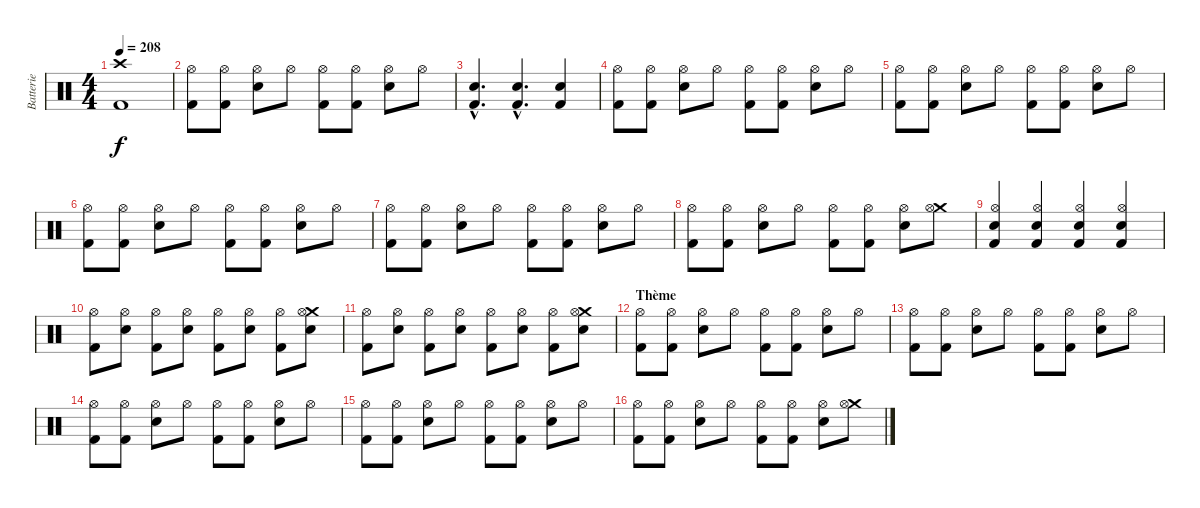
\track ("Batterie" "Batterie") {instrument percussion}
\staff {score}
\articulation defaults
\ts (4 4)
\tempo 208
\clef neutral
\ks c
("Crash high (hit)" "Kick (hit) 2").1{dy f} |
("Hi-Hat (open)" "Kick (hit) 2").8 ("Hi-Hat (open)" "Kick (hit) 2").8 ("Hi-Hat (open)" "Snare (hit) 2").8 "Hi-Hat (open)".8 ("Hi-Hat (open)" "Kick (hit) 2").8 ("Hi-Hat (open)" "Kick (hit) 2").8 ("Hi-Hat (open)" "Snare (hit) 2").8 "Hi-Hat (open)".8 |
("Snare (hit) 2"{hac} "Kick (hit) 2"{hac}).4{d} ("Snare (hit) 2"{hac} "Kick (hit) 2"{hac}).4{d} ("Snare (hit) 2" "Kick (hit) 2").4 |
("Hi-Hat (open)" "Kick (hit) 2").8 ("Hi-Hat (open)" "Kick (hit) 2").8 ("Hi-Hat (open)" "Snare (hit) 2").8 "Hi-Hat (open)".8 ("Hi-Hat (open)" "Kick (hit) 2").8 ("Hi-Hat (open)" "Kick (hit) 2").8 ("Hi-Hat (open)" "Snare (hit) 2").8 "Hi-Hat (open)".8 |
("Hi-Hat (open)" "Kick (hit) 2").8 ("Hi-Hat (open)" "Kick (hit) 2").8 ("Hi-Hat (open)" "Snare (hit) 2").8 "Hi-Hat (open)".8 ("Hi-Hat (open)" "Kick (hit) 2").8 ("Hi-Hat (open)" "Kick (hit) 2").8 ("Hi-Hat (open)" "Snare (hit) 2").8 "Hi-Hat (open)".8 |
("Hi-Hat (open)" "Kick (hit) 2").8 ("Hi-Hat (open)" "Kick (hit) 2").8 ("Hi-Hat (open)" "Snare (hit) 2").8 "Hi-Hat (open)".8 ("Hi-Hat (open)" "Kick (hit) 2").8 ("Hi-Hat (open)" "Kick (hit) 2").8 ("Hi-Hat (open)" "Snare (hit) 2").8 "Hi-Hat (open)".8 |
("Hi-Hat (open)" "Kick (hit) 2").8 ("Hi-Hat (open)" "Kick (hit) 2").8 ("Hi-Hat (open)" "Snare (hit) 2").8 "Hi-Hat (open)".8 ("Hi-Hat (open)" "Kick (hit) 2").8 ("Hi-Hat (open)" "Kick (hit) 2").8 ("Hi-Hat (open)" "Snare (hit) 2").8 "Hi-Hat (open)".8 |
("Hi-Hat (open)" "Kick (hit) 2").8 ("Hi-Hat (open)" "Kick (hit) 2").8 ("Hi-Hat (open)" "Snare (hit) 2").8 "Hi-Hat (open)".8 ("Hi-Hat (open)" "Kick (hit) 2").8 ("Hi-Hat (open)" "Kick (hit) 2").8 ("Hi-Hat (open)" "Snare (hit) 2").8 ("Crash medium (hit)" "Hi-Hat (open)").8 |
("Hi-Hat (open)" "Snare (hit) 2" "Kick (hit) 2").4 ("Hi-Hat (open)" "Snare (hit) 2" "Kick (hit) 2").4 ("Hi-Hat (open)" "Snare (hit) 2" "Kick (hit) 2").4 ("Hi-Hat (open)" "Snare (hit) 2" "Kick (hit) 2").4 |
("Hi-Hat (open)" "Kick (hit) 2").8 ("Hi-Hat (open)" "Snare (hit) 2").8 ("Hi-Hat (open)" "Kick (hit) 2").8 ("Hi-Hat (open)" "Snare (hit) 2").8 ("Hi-Hat (open)" "Kick (hit) 2").8 ("Hi-Hat (open)" "Snare (hit) 2").8 ("Hi-Hat (open)" "Kick (hit) 2").8 ("Crash medium (hit)" "Hi-Hat (open)" "Snare (hit) 2").8 |
("Hi-Hat (open)" "Kick (hit) 2").8 ("Hi-Hat (open)" "Snare (hit) 2").8 ("Hi-Hat (open)" "Kick (hit) 2").8 ("Hi-Hat (open)" "Snare (hit) 2").8 ("Hi-Hat (open)" "Kick (hit) 2").8 ("Hi-Hat (open)" "Snare (hit) 2").8 ("Hi-Hat (open)" "Kick (hit) 2").8 ("Crash medium (hit)" "Hi-Hat (open)" "Snare (hit) 2").8 |
\section ("" "Thème")
("Hi-Hat (open)" "Kick (hit) 2").8 ("Hi-Hat (open)" "Kick (hit) 2").8 ("Hi-Hat (open)" "Snare (hit) 2").8 "Hi-Hat (open)".8 ("Hi-Hat (open)" "Kick (hit) 2").8 ("Hi-Hat (open)" "Kick (hit) 2").8 ("Hi-Hat (open)" "Snare (hit) 2").8 "Hi-Hat (open)".8 |
("Hi-Hat (open)" "Kick (hit) 2").8 ("Hi-Hat (open)" "Kick (hit) 2").8 ("Hi-Hat (open)" "Snare (hit) 2").8 "Hi-Hat (open)".8 ("Hi-Hat (open)" "Kick (hit) 2").8 ("Hi-Hat (open)" "Kick (hit) 2").8 ("Hi-Hat (open)" "Snare (hit) 2").8 "Hi-Hat (open)".8 |
("Hi-Hat (open)" "Kick (hit) 2").8 ("Hi-Hat (open)" "Kick (hit) 2").8 ("Hi-Hat (open)" "Snare (hit) 2").8 "Hi-Hat (open)".8 ("Hi-Hat (open)" "Kick (hit) 2").8 ("Hi-Hat (open)" "Kick (hit) 2").8 ("Hi-Hat (open)" "Snare (hit) 2").8 "Hi-Hat (open)".8 |
("Hi-Hat (open)" "Kick (hit) 2").8 ("Hi-Hat (open)" "Kick (hit) 2").8 ("Hi-Hat (open)" "Snare (hit) 2").8 "Hi-Hat (open)".8 ("Hi-Hat (open)" "Kick (hit) 2").8 ("Hi-Hat (open)" "Kick (hit) 2").8 ("Hi-Hat (open)" "Snare (hit) 2").8 "Hi-Hat (open)".8 |
("Hi-Hat (open)" "Kick (hit) 2").8 ("Hi-Hat (open)" "Kick (hit) 2").8 ("Hi-Hat (open)" "Snare (hit) 2").8 "Hi-Hat (open)".8 ("Hi-Hat (open)" "Kick (hit) 2").8 ("Hi-Hat (open)" "Kick (hit) 2").8 ("Hi-Hat (open)" "Snare (hit) 2").8 ("Crash medium (hit)" "Hi-Hat (open)").8
